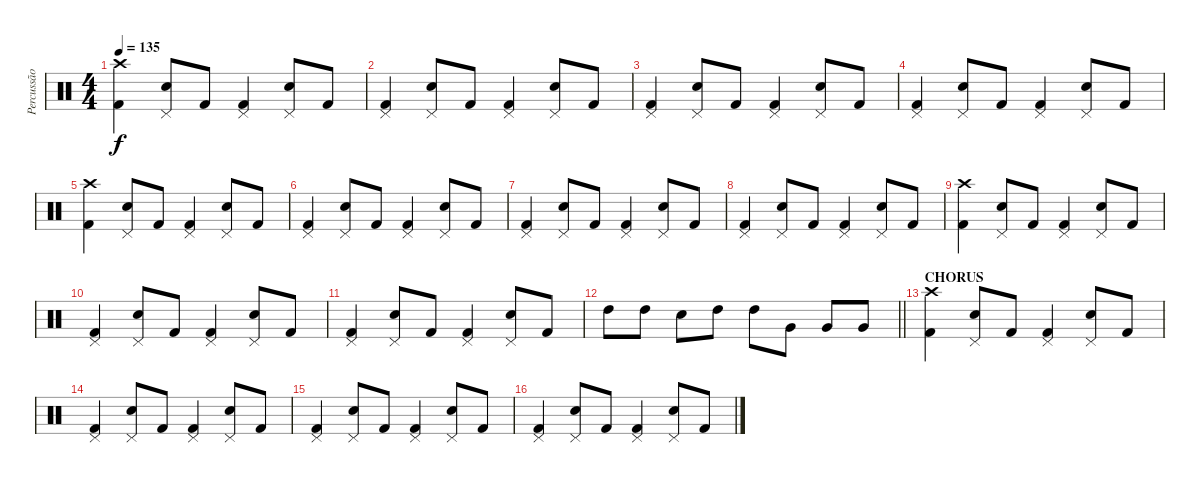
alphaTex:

\track ("Percussão" "Percussão") {instrument percussion}
\staff {score}
\articulation defaults
\ts (4 4)
\tempo 135
\clef neutral
\ks c
("Crash high (hit)" "Kick (hit) 2").4{dy f} ("Pedal Hi-Hat (hit)" "Snare (hit) 2").8 "Kick (hit) 2".8 ("Pedal Hi-Hat (hit)" "Kick (hit) 2").4 ("Pedal Hi-Hat (hit)" "Snare (hit) 2").8 "Kick (hit) 2".8 |
("Pedal Hi-Hat (hit)" "Kick (hit) 2").4 ("Pedal Hi-Hat (hit)" "Snare (hit) 2").8 "Kick (hit) 2".8 ("Pedal Hi-Hat (hit)" "Kick (hit) 2").4 ("Pedal Hi-Hat (hit)" "Snare (hit) 2").8 "Kick (hit) 2".8 |
("Pedal Hi-Hat (hit)" "Kick (hit) 2").4 ("Pedal Hi-Hat (hit)" "Snare (hit) 2").8 "Kick (hit) 2".8 ("Pedal Hi-Hat (hit)" "Kick (hit) 2").4 ("Pedal Hi-Hat (hit)" "Snare (hit) 2").8 "Kick (hit) 2".8 |
("Pedal Hi-Hat (hit)" "Kick (hit) 2").4 ("Pedal Hi-Hat (hit)" "Snare (hit) 2").8 "Kick (hit) 2".8 ("Pedal Hi-Hat (hit)" "Kick (hit) 2").4 ("Pedal Hi-Hat (hit)" "Snare (hit) 2").8 "Kick (hit) 2".8 |
("Crash high (hit)" "Kick (hit) 2").4 ("Pedal Hi-Hat (hit)" "Snare (hit) 2").8 "Kick (hit) 2".8 ("Pedal Hi-Hat (hit)" "Kick (hit) 2").4 ("Pedal Hi-Hat (hit)" "Snare (hit) 2").8 "Kick (hit) 2".8 |
("Pedal Hi-Hat (hit)" "Kick (hit) 2").4 ("Pedal Hi-Hat (hit)" "Snare (hit) 2").8 "Kick (hit) 2".8 ("Pedal Hi-Hat (hit)" "Kick (hit) 2").4 ("Pedal Hi-Hat (hit)" "Snare (hit) 2").8 "Kick (hit) 2".8 |
("Pedal Hi-Hat (hit)" "Kick (hit) 2").4 ("Pedal Hi-Hat (hit)" "Snare (hit) 2").8 "Kick (hit) 2".8 ("Pedal Hi-Hat (hit)" "Kick (hit) 2").4 ("Pedal Hi-Hat (hit)" "Snare (hit) 2").8 "Kick (hit) 2".8 |
("Pedal Hi-Hat (hit)" "Kick (hit) 2").4 ("Pedal Hi-Hat (hit)" "Snare (hit) 2").8 "Kick (hit) 2".8 ("Pedal Hi-Hat (hit)" "Kick (hit) 2").4 ("Pedal Hi-Hat (hit)" "Snare (hit) 2").8 "Kick (hit) 2".8 |
("Crash high (hit)" "Kick (hit) 2").4 ("Pedal Hi-Hat (hit)" "Snare (hit) 2").8 "Kick (hit) 2".8 ("Pedal Hi-Hat (hit)" "Kick (hit) 2").4 ("Pedal Hi-Hat (hit)" "Snare (hit) 2").8 "Kick (hit) 2".8 |
("Pedal Hi-Hat (hit)" "Kick (hit) 2").4 ("Pedal Hi-Hat (hit)" "Snare (hit) 2").8 "Kick (hit) 2".8 ("Pedal Hi-Hat (hit)" "Kick (hit) 2").4 ("Pedal Hi-Hat (hit)" "Snare (hit) 2").8 "Kick (hit) 2".8 |
("Pedal Hi-Hat (hit)" "Kick (hit) 2").4 ("Pedal Hi-Hat (hit)" "Snare (hit) 2").8 "Kick (hit) 2".8 ("Pedal Hi-Hat (hit)" "Kick (hit) 2").4 ("Pedal Hi-Hat (hit)" "Snare (hit) 2").8 "Kick (hit) 2".8 |
\barLineRight lightlight "High Tom (hit)".8 "High Tom (hit)".8 "Snare (hit) 2".8 "High Tom (hit)".8 "High Tom (hit)".8 "Very Low Tom (hit)".8 "Very Low Tom (hit)".8 "Very Low Tom (hit)".8
|
\section ("" "CHORUS")
("Crash high (hit)" "Kick (hit) 2").4 ("Pedal Hi-Hat (hit)" "Snare (hit) 2").8 "Kick (hit) 2".8 ("Pedal Hi-Hat (hit)" "Kick (hit) 2").4 ("Pedal Hi-Hat (hit)" "Snare (hit) 2").8 "Kick (hit) 2".8 |
("Pedal Hi-Hat (hit)" "Kick (hit) 2").4 ("Pedal Hi-Hat (hit)" "Snare (hit) 2").8 "Kick (hit) 2".8 ("Pedal Hi-Hat (hit)" "Kick (hit) 2").4 ("Pedal Hi-Hat (hit)" "Snare (hit) 2").8 "Kick (hit) 2".8 |
("Pedal Hi-Hat (hit)" "Kick (hit) 2").4 ("Pedal Hi-Hat (hit)" "Snare (hit) 2").8 "Kick (hit) 2".8 ("Pedal Hi-Hat (hit)" "Kick (hit) 2").4 ("Pedal Hi-Hat (hit)" "Snare (hit) 2").8 "Kick (hit) 2".8 |
("Pedal Hi-Hat (hit)" "Kick (hit) 2").4 ("Pedal Hi-Hat (hit)" "Snare (hit) 2").8 "Kick (hit) 2".8 ("Pedal Hi-Hat (hit)" "Kick (hit) 2").4 ("Pedal Hi-Hat (hit)" "Snare (hit) 2").8 "Kick (hit) 2".8
